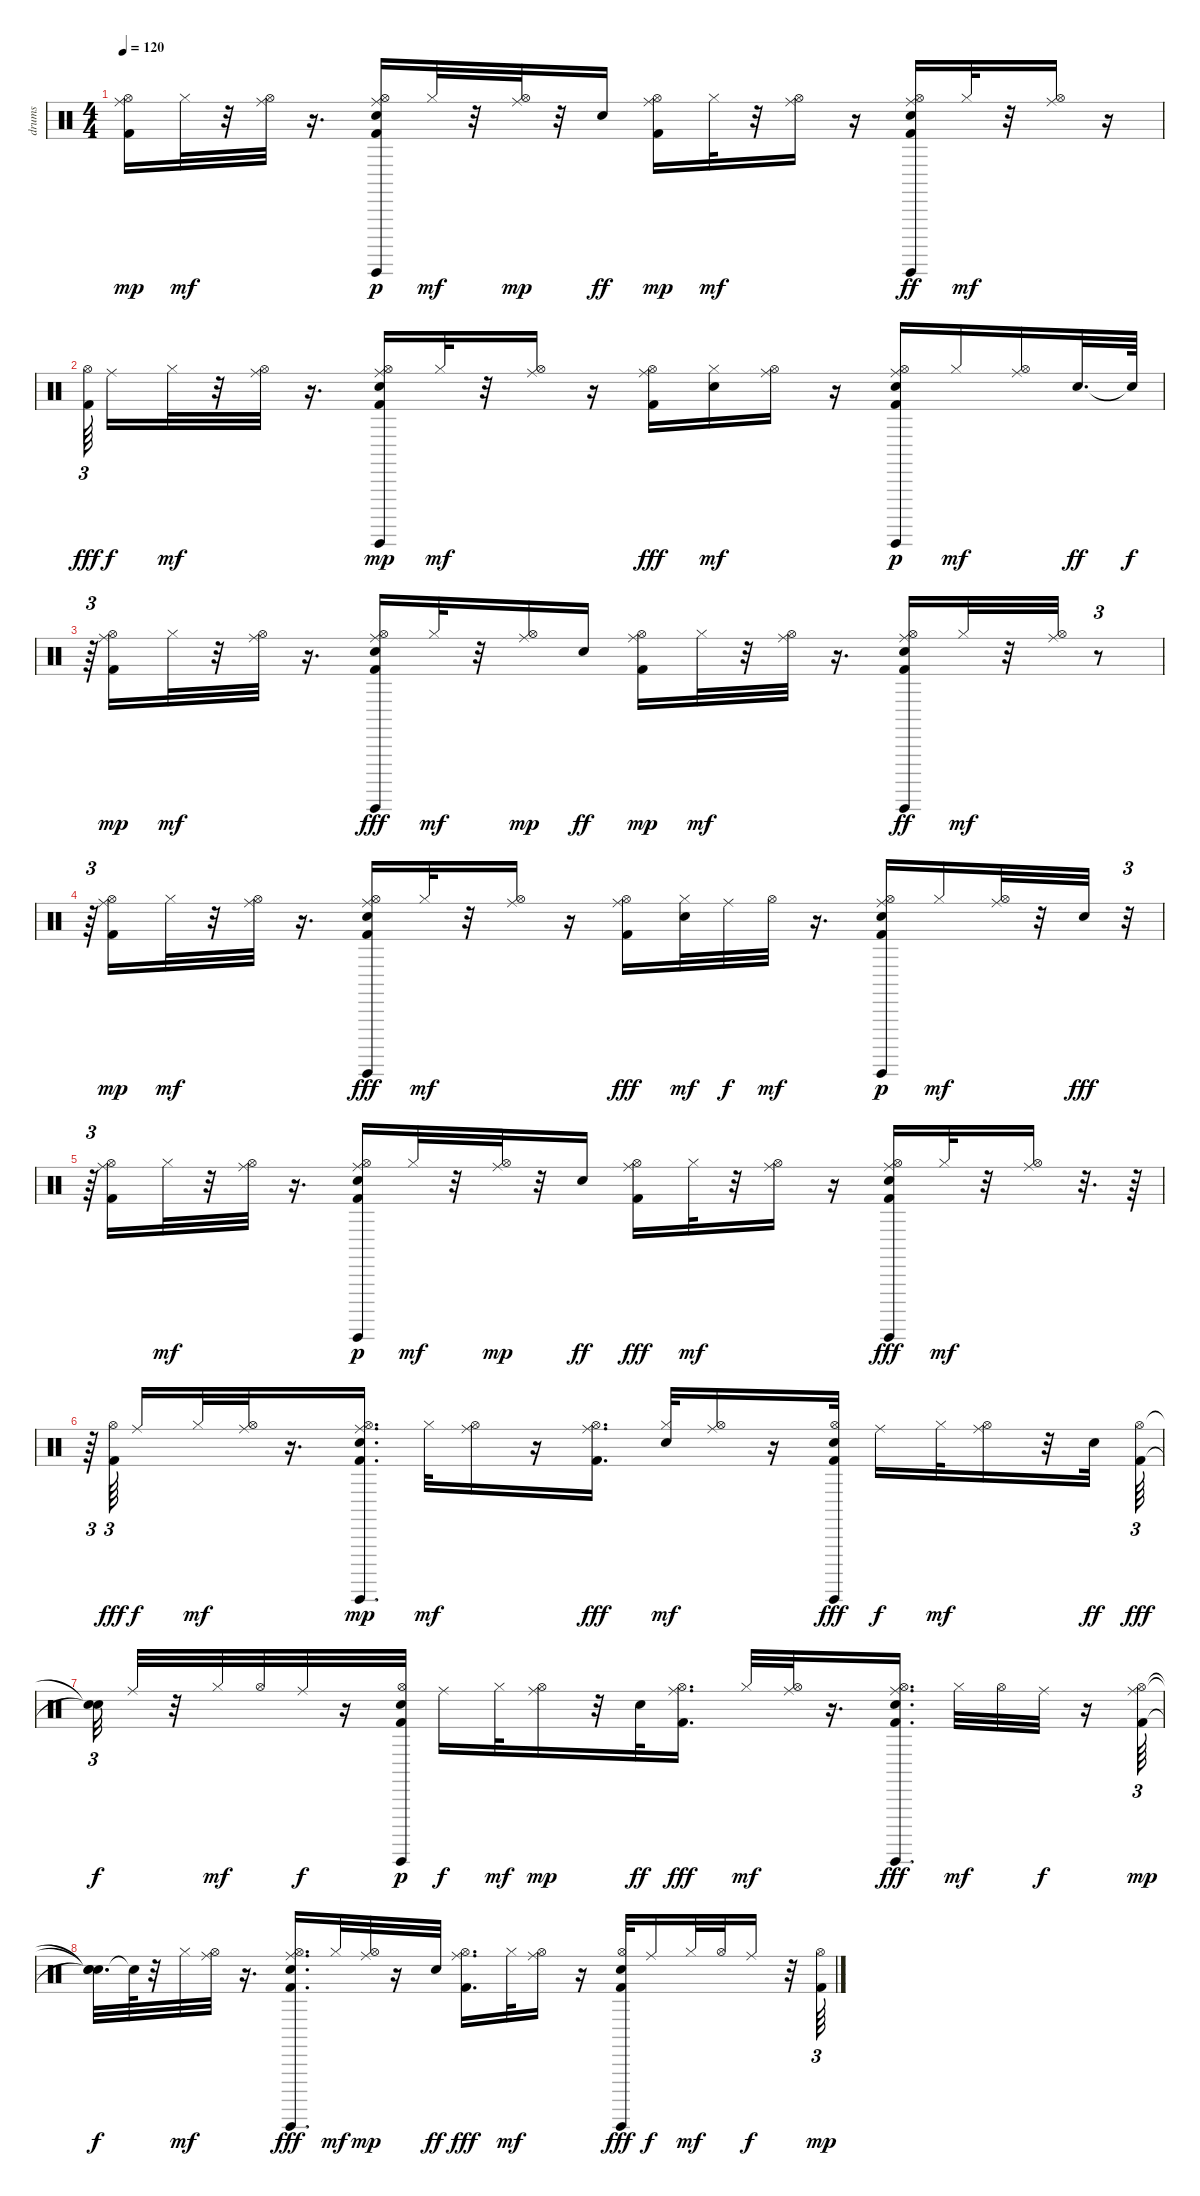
\track ("drums                               " "drums     ") {instrument percussion}
\staff {score}
\articulation defaults
\ts (4 4)
\tempo 120
\clef neutral
\ks c
("Kick (hit) 2" "Ride (middle)" "Hi-Hat (open)").16{dy mp} "Hi-Hat (closed)".32{dy mf} r.32 ("Ride (middle)" "Hi-Hat (open)").32 r.16{d} ("Kick (hit) 2" "Electric Snare (hit)" "Hi-Hat (open)" "Guiro (hit)" "Ride (middle)").16{dy p} "Hi-Hat (closed)".32{dy mf} r.32 ("Hi-Hat (open)" "Ride (middle)").32{dy mp} r.32 "Electric Snare (hit)".16{dy ff} ("Kick (hit) 2" "Hi-Hat (open)" "Ride (middle)").16{dy mp} "Hi-Hat (closed)".32{dy mf} r.32 ("Ride (middle)" "Hi-Hat (open)").16 r.16 ("Guiro (hit)" "Hi-Hat (open)" "Kick (hit) 2" "Electric Snare (hit)" "Ride (middle)").16{dy ff} "Hi-Hat (closed)".32{dy mf} r.32 ("Hi-Hat (open)" "Ride (middle)").16 r.16 |
("Hi-Hat (open)" "Kick (hit) 2").64{tu (3 2) dy fff beam splitsecondary} "Ride (middle)".16{dy f} "Hi-Hat (closed)".32{dy mf} r.32 ("Hi-Hat (open)" "Ride (middle)").32 r.16{d} ("Kick (hit) 2" "Electric Snare (hit)" "Guiro (hit)" "Hi-Hat (open)" "Ride (middle)").16{dy mp} "Hi-Hat (closed)".32{dy mf} r.32 ("Hi-Hat (open)" "Ride (middle)").16 r.16 ("Ride (middle)" "Hi-Hat (open)" "Kick (hit) 2").16{dy fff} ("Electric Snare (hit)" "Hi-Hat (closed)").16{dy mf} ("Hi-Hat (open)" "Ride (middle)").16 r.16 ("Kick (hit) 2" "Electric Snare (hit)" "Hi-Hat (open)" "Guiro (hit)" "Ride (middle)").16{dy p} "Hi-Hat (closed)".16{dy mf} ("Hi-Hat (open)" "Ride (middle)").16 "Electric Snare (hit)".32{d dy ff} "Snare (hit)"{t}.64{dy f} |
r.64{tu (3 2)} ("Kick (hit) 2" "Hi-Hat (open)" "Ride (middle)").16{dy mp} "Hi-Hat (closed)".32{dy mf} r.32 ("Hi-Hat (open)" "Ride (middle)").32 r.16{d} ("Hi-Hat (open)" "Guiro (hit)" "Electric Snare (hit)" "Kick (hit) 2" "Ride (middle)").16{dy fff} "Hi-Hat (closed)".32{dy mf} r.32 ("Hi-Hat (open)" "Ride (middle)").16{dy mp} "Electric Snare (hit)".16{dy ff} ("Ride (middle)" "Kick (hit) 2" "Hi-Hat (open)").16{dy mp} "Hi-Hat (closed)".32{dy mf} r.32 ("Hi-Hat (open)" "Ride (middle)").32 r.16{d} ("Kick (hit) 2" "Guiro (hit)" "Hi-Hat (open)" "Electric Snare (hit)" "Ride (middle)").16{dy ff} "Hi-Hat (closed)".32{dy mf} r.32 ("Hi-Hat (open)" "Ride (middle)").32 r.8{tu (3 2)} |
r.64{tu (3 2)} ("Kick (hit) 2" "Hi-Hat (open)" "Ride (middle)").16{dy mp} "Hi-Hat (closed)".32{dy mf} r.32 ("Ride (middle)" "Hi-Hat (open)").32 r.16{d} ("Hi-Hat (open)" "Guiro (hit)" "Electric Snare (hit)" "Kick (hit) 2" "Ride (middle)").16{dy fff} "Hi-Hat (closed)".32{dy mf} r.32 ("Ride (middle)" "Hi-Hat (open)").16 r.16 ("Ride (middle)" "Hi-Hat (open)" "Kick (hit) 2").16{dy fff} ("Electric Snare (hit)" "Hi-Hat (closed)").32{dy mf} "Ride (middle)".32{dy f} "Hi-Hat (open)".32{dy mf} r.16{d} ("Ride (middle)" "Guiro (hit)" "Kick (hit) 2" "Electric Snare (hit)" "Hi-Hat (open)").16{dy p} "Hi-Hat (closed)".16{dy mf} ("Ride (middle)" "Hi-Hat (open)").32 r.32 "Electric Snare (hit)".32{dy fff} r.32{tu (3 2)} |
r.64{tu (3 2)} ("Ride (middle)" "Hi-Hat (open)" "Kick (hit) 2").16 "Hi-Hat (closed)".32{dy mf} r.32 ("Ride (middle)" "Hi-Hat (open)").32 r.16{d} ("Kick (hit) 2" "Electric Snare (hit)" "Guiro (hit)" "Hi-Hat (open)" "Ride (middle)").16{dy p} "Hi-Hat (closed)".32{dy mf} r.32 ("Hi-Hat (open)" "Ride (middle)").32{dy mp} r.32 "Electric Snare (hit)".16{dy ff} ("Hi-Hat (open)" "Kick (hit) 2" "Ride (middle)").16{dy fff} "Hi-Hat (closed)".32{dy mf} r.32 ("Ride (middle)" "Hi-Hat (open)").16 r.16 ("Electric Snare (hit)" "Hi-Hat (open)" "Kick (hit) 2" "Guiro (hit)" "Ride (middle)").16{dy fff} "Hi-Hat (closed)".32{dy mf} r.32 ("Hi-Hat (open)" "Ride (middle)").16 r.32{d} r.64 |
r.64{tu (3 2)} ("Hi-Hat (open)" "Kick (hit) 2").64{tu (3 2) dy fff beam splitsecondary} "Ride (middle)".16{dy f} "Hi-Hat (closed)".32{dy mf} ("Hi-Hat (open)" "Ride (middle)").32 r.16{d} ("Kick (hit) 2" "Electric Snare (hit)" "Guiro (hit)" "Hi-Hat (open)" "Ride (middle)").16{d dy mp} "Hi-Hat (closed)".32{dy mf} ("Hi-Hat (open)" "Ride (middle)").16 r.16 ("Ride (middle)" "Hi-Hat (open)" "Kick (hit) 2").16{d dy fff} ("Electric Snare (hit)" "Hi-Hat (closed)").32{dy mf} ("Hi-Hat (open)" "Ride (middle)").16 r.16 ("Electric Snare (hit)" "Hi-Hat (open)" "Kick (hit) 2" "Guiro (hit)").32{dy fff} "Ride (middle)".16{dy f} "Hi-Hat (closed)".32{dy mf} ("Hi-Hat (open)" "Ride (middle)").16 r.32 "Electric Snare (hit)".32{dy ff} ("Hi-Hat (open)" "Kick (hit) 2").64{tu (3 2) dy fff} |
("Snare (hit)"{t} "Snare (hit)"{t}).32{tu (3 2) dy f} "Ride (middle)".32 r.32 "Hi-Hat (closed)".32{dy mf} "Hi-Hat (open)".32 "Ride (middle)".32{dy f} r.16 ("Electric Snare (hit)" "Kick (hit) 2" "Guiro (hit)" "Hi-Hat (open)").32{dy p} "Ride (middle)".16{dy f} "Hi-Hat (closed)".32{dy mf} ("Hi-Hat (open)" "Ride (middle)").16{dy mp} r.32 "Electric Snare (hit)".32{dy ff} ("Ride (middle)" "Hi-Hat (open)" "Kick (hit) 2").16{d dy fff} "Hi-Hat (closed)".32{dy mf} ("Hi-Hat (open)" "Ride (middle)").32 r.16{d} ("Hi-Hat (open)" "Electric Snare (hit)" "Guiro (hit)" "Kick (hit) 2" "Ride (middle)").16{d dy fff} "Hi-Hat (closed)".32{dy mf} "Hi-Hat (open)".32 "Ride (middle)".32{dy f} r.16 ("Kick (hit) 2" "Ride (middle)" "Hi-Hat (open)").64{tu (3 2) dy mp} |
("Snare (hit)"{t} "Snare (hit)"{t} "Snare (hit)"{t}).32{d dy f} "Snare (hit)"{t}.64 r.32 "Hi-Hat (closed)".32{dy mf} ("Ride (middle)" "Hi-Hat (open)").32 r.16{d} ("Electric Snare (hit)" "Hi-Hat (open)" "Guiro (hit)" "Kick (hit) 2" "Ride (middle)").16{d dy fff} "Hi-Hat (closed)".32{dy mf} ("Hi-Hat (open)" "Ride (middle)").32{dy mp} r.16 "Electric Snare (hit)".32{dy ff} ("Hi-Hat (open)" "Kick (hit) 2" "Ride (middle)").16{d dy fff} "Hi-Hat (closed)".32{dy mf} ("Ride (middle)" "Hi-Hat (open)").16 r.16 ("Electric Snare (hit)" "Hi-Hat (open)" "Guiro (hit)" "Kick (hit) 2").32{dy fff} "Ride (middle)".16{dy f} "Hi-Hat (closed)".32{dy mf} "Hi-Hat (open)".32 "Ride (middle)".16{dy f} r.32 ("Kick (hit) 2" "Hi-Hat (open)").64{tu (3 2) dy mp}
